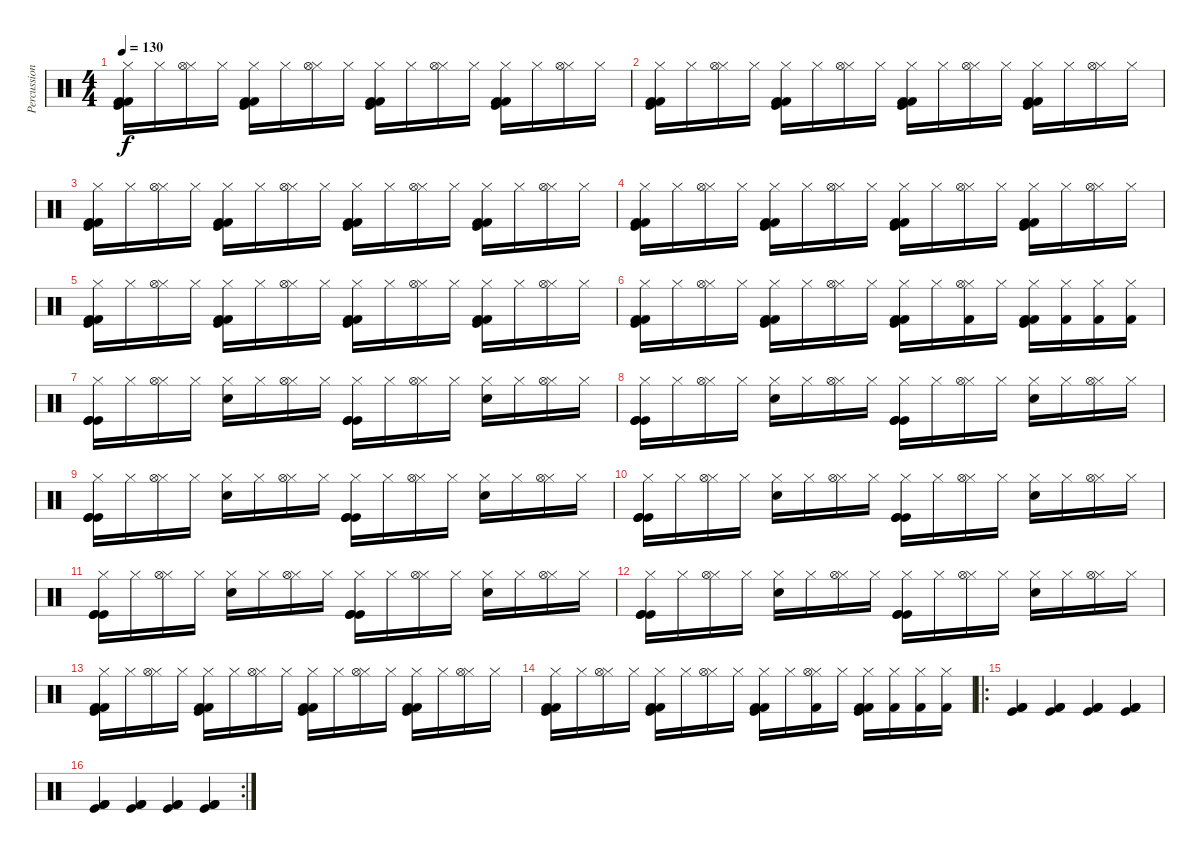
\track ("Percussion" "Percussion") {instrument percussion}
\staff {score}
\articulation defaults
\ts (4 4)
\tempo 130
\clef neutral
\ks c
("Hi-Hat (closed)" "Kick (hit)" "Kick (hit) 2" "Kick (hit) 2").16{dy f} "Hi-Hat (closed)".16 ("Hi-Hat (closed)" "Hi-Hat (open)").16 "Hi-Hat (closed)".16 ("Hi-Hat (closed)" "Kick (hit) 2" "Kick (hit) 2" "Kick (hit)").16 "Hi-Hat (closed)".16 ("Hi-Hat (closed)" "Hi-Hat (open)").16 "Hi-Hat (closed)".16 ("Hi-Hat (closed)" "Kick (hit)" "Kick (hit) 2" "Kick (hit) 2").16 "Hi-Hat (closed)".16 ("Hi-Hat (closed)" "Hi-Hat (open)").16 "Hi-Hat (closed)".16 ("Hi-Hat (closed)" "Kick (hit) 2" "Kick (hit) 2" "Kick (hit)").16 "Hi-Hat (closed)".16 ("Hi-Hat (closed)" "Hi-Hat (open)").16 "Hi-Hat (closed)".16 |
("Hi-Hat (closed)" "Kick (hit)" "Kick (hit) 2" "Kick (hit) 2").16 "Hi-Hat (closed)".16 ("Hi-Hat (closed)" "Hi-Hat (open)").16 "Hi-Hat (closed)".16 ("Hi-Hat (closed)" "Kick (hit) 2" "Kick (hit) 2" "Kick (hit)").16 "Hi-Hat (closed)".16 ("Hi-Hat (closed)" "Hi-Hat (open)").16 "Hi-Hat (closed)".16 ("Hi-Hat (closed)" "Kick (hit)" "Kick (hit) 2" "Kick (hit) 2").16 "Hi-Hat (closed)".16 ("Hi-Hat (closed)" "Hi-Hat (open)").16 "Hi-Hat (closed)".16 ("Hi-Hat (closed)" "Kick (hit) 2" "Kick (hit) 2" "Kick (hit)").16 "Hi-Hat (closed)".16 ("Hi-Hat (closed)" "Hi-Hat (open)").16 "Hi-Hat (closed)".16 |
("Hi-Hat (closed)" "Kick (hit)" "Kick (hit) 2" "Kick (hit) 2").16 "Hi-Hat (closed)".16 ("Hi-Hat (closed)" "Hi-Hat (open)").16 "Hi-Hat (closed)".16 ("Hi-Hat (closed)" "Kick (hit) 2" "Kick (hit) 2" "Kick (hit)").16 "Hi-Hat (closed)".16 ("Hi-Hat (closed)" "Hi-Hat (open)").16 "Hi-Hat (closed)".16 ("Hi-Hat (closed)" "Kick (hit)" "Kick (hit) 2" "Kick (hit) 2").16 "Hi-Hat (closed)".16 ("Hi-Hat (closed)" "Hi-Hat (open)").16 "Hi-Hat (closed)".16 ("Hi-Hat (closed)" "Kick (hit) 2" "Kick (hit) 2" "Kick (hit)").16 "Hi-Hat (closed)".16 ("Hi-Hat (closed)" "Hi-Hat (open)").16 "Hi-Hat (closed)".16 |
("Hi-Hat (closed)" "Kick (hit)" "Kick (hit) 2" "Kick (hit) 2").16 "Hi-Hat (closed)".16 ("Hi-Hat (closed)" "Hi-Hat (open)").16 "Hi-Hat (closed)".16 ("Hi-Hat (closed)" "Kick (hit) 2" "Kick (hit) 2" "Kick (hit)").16 "Hi-Hat (closed)".16 ("Hi-Hat (closed)" "Hi-Hat (open)").16 "Hi-Hat (closed)".16 ("Hi-Hat (closed)" "Kick (hit)" "Kick (hit) 2" "Kick (hit) 2").16 "Hi-Hat (closed)".16 ("Hi-Hat (closed)" "Hi-Hat (open)").16 "Hi-Hat (closed)".16 ("Hi-Hat (closed)" "Kick (hit) 2" "Kick (hit) 2" "Kick (hit)").16 "Hi-Hat (closed)".16 ("Hi-Hat (closed)" "Hi-Hat (open)").16 "Hi-Hat (closed)".16 |
("Hi-Hat (closed)" "Kick (hit)" "Kick (hit) 2" "Kick (hit) 2").16 "Hi-Hat (closed)".16 ("Hi-Hat (closed)" "Hi-Hat (open)").16 "Hi-Hat (closed)".16 ("Hi-Hat (closed)" "Kick (hit) 2" "Kick (hit) 2" "Kick (hit)").16 "Hi-Hat (closed)".16 ("Hi-Hat (closed)" "Hi-Hat (open)").16 "Hi-Hat (closed)".16 ("Hi-Hat (closed)" "Kick (hit)" "Kick (hit) 2" "Kick (hit) 2").16 "Hi-Hat (closed)".16 ("Hi-Hat (closed)" "Hi-Hat (open)").16 "Hi-Hat (closed)".16 ("Hi-Hat (closed)" "Kick (hit) 2" "Kick (hit) 2" "Kick (hit)").16 "Hi-Hat (closed)".16 ("Hi-Hat (closed)" "Hi-Hat (open)").16 "Hi-Hat (closed)".16 |
("Hi-Hat (closed)" "Kick (hit)" "Kick (hit) 2" "Kick (hit) 2").16 "Hi-Hat (closed)".16 ("Hi-Hat (closed)" "Hi-Hat (open)").16 "Hi-Hat (closed)".16 ("Hi-Hat (closed)" "Kick (hit) 2" "Kick (hit) 2" "Kick (hit)").16 "Hi-Hat (closed)".16 ("Hi-Hat (closed)" "Hi-Hat (open)").16 "Hi-Hat (closed)".16 ("Hi-Hat (closed)" "Kick (hit)" "Kick (hit) 2" "Kick (hit) 2").16 "Hi-Hat (closed)".16 ("Hi-Hat (closed)" "Kick (hit) 2" "Hi-Hat (open)").16 "Hi-Hat (closed)".16 ("Hi-Hat (closed)" "Kick (hit) 2" "Kick (hit) 2" "Kick (hit)").16 ("Hi-Hat (closed)" "Kick (hit) 2").16 ("Hi-Hat (closed)" "Kick (hit) 2").16 ("Hi-Hat (closed)" "Kick (hit) 2").16 |
("Hi-Hat (closed)" "Kick (hit)" "Kick (hit)" "Kick (hit)").16 "Hi-Hat (closed)".16 ("Hi-Hat (closed)" "Hi-Hat (open)").16 "Hi-Hat (closed)".16 ("Hi-Hat (closed)" "Electric Snare (hit)").16 "Hi-Hat (closed)".16 ("Hi-Hat (closed)" "Hi-Hat (open)").16 "Hi-Hat (closed)".16 ("Hi-Hat (closed)" "Kick (hit)" "Kick (hit)" "Kick (hit)").16 "Hi-Hat (closed)".16 ("Hi-Hat (closed)" "Hi-Hat (open)").16 "Hi-Hat (closed)".16 ("Hi-Hat (closed)" "Electric Snare (hit)").16 "Hi-Hat (closed)".16 ("Hi-Hat (closed)" "Hi-Hat (open)").16 "Hi-Hat (closed)".16 |
("Hi-Hat (closed)" "Kick (hit)" "Kick (hit)" "Kick (hit)").16 "Hi-Hat (closed)".16 ("Hi-Hat (closed)" "Hi-Hat (open)").16 "Hi-Hat (closed)".16 ("Hi-Hat (closed)" "Electric Snare (hit)").16 "Hi-Hat (closed)".16 ("Hi-Hat (closed)" "Hi-Hat (open)").16 "Hi-Hat (closed)".16 ("Hi-Hat (closed)" "Kick (hit)" "Kick (hit)" "Kick (hit)").16 "Hi-Hat (closed)".16 ("Hi-Hat (closed)" "Hi-Hat (open)").16 "Hi-Hat (closed)".16 ("Hi-Hat (closed)" "Electric Snare (hit)").16 "Hi-Hat (closed)".16 ("Hi-Hat (closed)" "Hi-Hat (open)").16 "Hi-Hat (closed)".16 |
("Hi-Hat (closed)" "Kick (hit)" "Kick (hit)" "Kick (hit)").16 "Hi-Hat (closed)".16 ("Hi-Hat (closed)" "Hi-Hat (open)").16 "Hi-Hat (closed)".16 ("Hi-Hat (closed)" "Electric Snare (hit)").16 "Hi-Hat (closed)".16 ("Hi-Hat (closed)" "Hi-Hat (open)").16 "Hi-Hat (closed)".16 ("Hi-Hat (closed)" "Kick (hit)" "Kick (hit)" "Kick (hit)").16 "Hi-Hat (closed)".16 ("Hi-Hat (closed)" "Hi-Hat (open)").16 "Hi-Hat (closed)".16 ("Hi-Hat (closed)" "Electric Snare (hit)").16 "Hi-Hat (closed)".16 ("Hi-Hat (closed)" "Hi-Hat (open)").16 "Hi-Hat (closed)".16 |
("Hi-Hat (closed)" "Kick (hit)" "Kick (hit)" "Kick (hit)").16 "Hi-Hat (closed)".16 ("Hi-Hat (closed)" "Hi-Hat (open)").16 "Hi-Hat (closed)".16 ("Hi-Hat (closed)" "Electric Snare (hit)").16 "Hi-Hat (closed)".16 ("Hi-Hat (closed)" "Hi-Hat (open)").16 "Hi-Hat (closed)".16 ("Hi-Hat (closed)" "Kick (hit)" "Kick (hit)" "Kick (hit)").16 "Hi-Hat (closed)".16 ("Hi-Hat (closed)" "Hi-Hat (open)").16 "Hi-Hat (closed)".16 ("Hi-Hat (closed)" "Electric Snare (hit)").16 "Hi-Hat (closed)".16 ("Hi-Hat (closed)" "Hi-Hat (open)").16 "Hi-Hat (closed)".16 |
("Hi-Hat (closed)" "Kick (hit)" "Kick (hit)" "Kick (hit)").16 "Hi-Hat (closed)".16 ("Hi-Hat (closed)" "Hi-Hat (open)").16 "Hi-Hat (closed)".16 ("Hi-Hat (closed)" "Electric Snare (hit)").16 "Hi-Hat (closed)".16 ("Hi-Hat (closed)" "Hi-Hat (open)").16 "Hi-Hat (closed)".16 ("Hi-Hat (closed)" "Kick (hit)" "Kick (hit)" "Kick (hit)").16 "Hi-Hat (closed)".16 ("Hi-Hat (closed)" "Hi-Hat (open)").16 "Hi-Hat (closed)".16 ("Hi-Hat (closed)" "Electric Snare (hit)").16 "Hi-Hat (closed)".16 ("Hi-Hat (closed)" "Hi-Hat (open)").16 "Hi-Hat (closed)".16 |
("Hi-Hat (closed)" "Kick (hit)" "Kick (hit)" "Kick (hit)").16 "Hi-Hat (closed)".16 ("Hi-Hat (closed)" "Hi-Hat (open)").16 "Hi-Hat (closed)".16 ("Hi-Hat (closed)" "Electric Snare (hit)").16 "Hi-Hat (closed)".16 ("Hi-Hat (closed)" "Hi-Hat (open)").16 "Hi-Hat (closed)".16 ("Hi-Hat (closed)" "Kick (hit)" "Kick (hit)" "Kick (hit)").16 "Hi-Hat (closed)".16 ("Hi-Hat (closed)" "Hi-Hat (open)").16 "Hi-Hat (closed)".16 ("Hi-Hat (closed)" "Electric Snare (hit)").16 "Hi-Hat (closed)".16 ("Hi-Hat (closed)" "Hi-Hat (open)").16 "Hi-Hat (closed)".16 |
("Hi-Hat (closed)" "Kick (hit)" "Kick (hit) 2" "Kick (hit) 2").16 "Hi-Hat (closed)".16 ("Hi-Hat (closed)" "Hi-Hat (open)").16 "Hi-Hat (closed)".16 ("Hi-Hat (closed)" "Kick (hit) 2" "Kick (hit) 2" "Kick (hit)").16 "Hi-Hat (closed)".16 ("Hi-Hat (closed)" "Hi-Hat (open)").16 "Hi-Hat (closed)".16 ("Hi-Hat (closed)" "Kick (hit)" "Kick (hit) 2" "Kick (hit) 2").16 "Hi-Hat (closed)".16 ("Hi-Hat (closed)" "Hi-Hat (open)").16 "Hi-Hat (closed)".16 ("Hi-Hat (closed)" "Kick (hit) 2" "Kick (hit) 2" "Kick (hit)").16 "Hi-Hat (closed)".16 ("Hi-Hat (closed)" "Hi-Hat (open)").16 "Hi-Hat (closed)".16 |
("Hi-Hat (closed)" "Kick (hit)" "Kick (hit) 2" "Kick (hit) 2").16 "Hi-Hat (closed)".16 ("Hi-Hat (closed)" "Hi-Hat (open)").16 "Hi-Hat (closed)".16 ("Hi-Hat (closed)" "Kick (hit) 2" "Kick (hit) 2" "Kick (hit)").16 "Hi-Hat (closed)".16 ("Hi-Hat (closed)" "Hi-Hat (open)").16 "Hi-Hat (closed)".16 ("Hi-Hat (closed)" "Kick (hit)" "Kick (hit) 2" "Kick (hit) 2").16 "Hi-Hat (closed)".16 ("Hi-Hat (closed)" "Kick (hit) 2" "Hi-Hat (open)").16 "Hi-Hat (closed)".16 ("Hi-Hat (closed)" "Kick (hit) 2" "Kick (hit) 2" "Kick (hit)").16 ("Hi-Hat (closed)" "Kick (hit) 2").16 ("Hi-Hat (closed)" "Kick (hit) 2").16 ("Hi-Hat (closed)" "Kick (hit) 2").16 |
\ro
("Kick (hit) 2" "Kick (hit) 2" "Kick (hit)").4 ("Kick (hit) 2" "Kick (hit) 2" "Kick (hit)").4 ("Kick (hit) 2" "Kick (hit) 2" "Kick (hit)").4 ("Kick (hit) 2" "Kick (hit) 2" "Kick (hit)").4 |
\rc 2
("Kick (hit) 2" "Kick (hit) 2" "Kick (hit)").4 ("Kick (hit) 2" "Kick (hit) 2" "Kick (hit)").4 ("Kick (hit) 2" "Kick (hit) 2" "Kick (hit)").4 ("Kick (hit) 2" "Kick (hit) 2" "Kick (hit)").4
